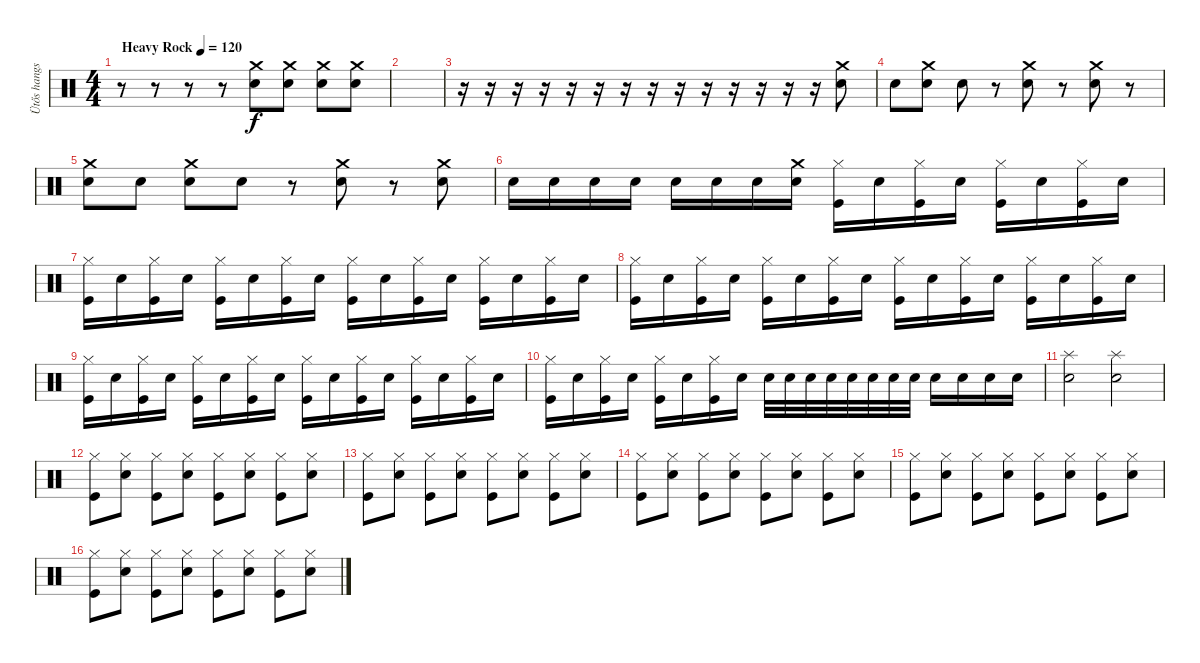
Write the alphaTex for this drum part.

\track ("Ütős hangszer" "Ütős hangs") {instrument percussion}
\staff {score}
\articulation defaults
\ts (4 4)
\tempo (120 "Heavy Rock")
\clef neutral
\ks c
r.8{dy f} r.8 r.8 r.8 ("Crash medium (hit)" "Snare (hit) 2").8 ("Crash medium (hit)" "Snare (hit) 2").8 ("Crash medium (hit)" "Snare (hit) 2").8 ("Crash medium (hit)" "Snare (hit) 2").8 |
|
r.16 r.16 r.16 r.16 r.16 r.16 r.16 r.16 r.16 r.16 r.16 r.16 r.16 r.16 ("Crash medium (hit)" "Snare (hit) 2").8 |
"Snare (hit) 2".8 ("Crash medium (hit)" "Snare (hit) 2").8 "Snare (hit) 2".8 r.8 ("Crash medium (hit)" "Snare (hit) 2").8 r.8 ("Crash medium (hit)" "Snare (hit) 2").8 r.8 |
("Crash medium (hit)" "Snare (hit) 2").8 "Snare (hit) 2".8 ("Crash medium (hit)" "Snare (hit) 2").8 "Snare (hit) 2".8 r.8 ("Crash medium (hit)" "Snare (hit) 2").8 r.8 ("Crash medium (hit)" "Snare (hit) 2").8 |
"Snare (hit) 2".16 "Snare (hit) 2".16 "Snare (hit) 2".16 "Snare (hit) 2".16 "Snare (hit) 2".16 "Snare (hit) 2".16 "Snare (hit) 2".16 ("Crash medium (hit)" "Snare (hit) 2").16 ("Hi-Hat (closed)" "Kick (hit)").16 "Snare (hit) 2".16 ("Hi-Hat (closed)" "Kick (hit)").16 "Snare (hit) 2".16 ("Hi-Hat (closed)" "Kick (hit)").16 "Snare (hit) 2".16 ("Hi-Hat (closed)" "Kick (hit)").16 "Snare (hit) 2".16 |
("Hi-Hat (closed)" "Kick (hit)").16 "Snare (hit) 2".16 ("Hi-Hat (closed)" "Kick (hit)").16 "Snare (hit) 2".16 ("Hi-Hat (closed)" "Kick (hit)").16 "Snare (hit) 2".16 ("Hi-Hat (closed)" "Kick (hit)").16 "Snare (hit) 2".16 ("Hi-Hat (closed)" "Kick (hit)").16 "Snare (hit) 2".16 ("Hi-Hat (closed)" "Kick (hit)").16 "Snare (hit) 2".16 ("Hi-Hat (closed)" "Kick (hit)").16 "Snare (hit) 2".16 ("Hi-Hat (closed)" "Kick (hit)").16 "Snare (hit) 2".16 |
("Hi-Hat (closed)" "Kick (hit)").16 "Snare (hit) 2".16 ("Hi-Hat (closed)" "Kick (hit)").16 "Snare (hit) 2".16 ("Hi-Hat (closed)" "Kick (hit)").16 "Snare (hit) 2".16 ("Hi-Hat (closed)" "Kick (hit)").16 "Snare (hit) 2".16 ("Hi-Hat (closed)" "Kick (hit)").16 "Snare (hit) 2".16 ("Hi-Hat (closed)" "Kick (hit)").16 "Snare (hit) 2".16 ("Hi-Hat (closed)" "Kick (hit)").16 "Snare (hit) 2".16 ("Hi-Hat (closed)" "Kick (hit)").16 "Snare (hit) 2".16 |
("Hi-Hat (closed)" "Kick (hit)").16 "Snare (hit) 2".16 ("Hi-Hat (closed)" "Kick (hit)").16 "Snare (hit) 2".16 ("Hi-Hat (closed)" "Kick (hit)").16 "Snare (hit) 2".16 ("Hi-Hat (closed)" "Kick (hit)").16 "Snare (hit) 2".16 ("Hi-Hat (closed)" "Kick (hit)").16 "Snare (hit) 2".16 ("Hi-Hat (closed)" "Kick (hit)").16 "Snare (hit) 2".16 ("Hi-Hat (closed)" "Kick (hit)").16 "Snare (hit) 2".16 ("Hi-Hat (closed)" "Kick (hit)").16 "Snare (hit) 2".16 |
("Hi-Hat (closed)" "Kick (hit)").16 "Snare (hit) 2".16 ("Hi-Hat (closed)" "Kick (hit)").16 "Snare (hit) 2".16 ("Hi-Hat (closed)" "Kick (hit)").16 "Snare (hit) 2".16 ("Hi-Hat (closed)" "Kick (hit)").16 "Snare (hit) 2".16 "Snare (hit) 2".32 "Snare (hit) 2".32 "Snare (hit) 2".32 "Snare (hit) 2".32 "Snare (hit) 2".32 "Snare (hit) 2".32 "Snare (hit) 2".32 "Snare (hit) 2".32 "Snare (hit) 2".16 "Snare (hit) 2".16 "Snare (hit) 2".16 "Snare (hit) 2".16 |
("Splash (hit)" "Snare (hit) 2").2 ("Splash (hit)" "Snare (hit) 2").2 |
("Hi-Hat (closed)" "Kick (hit)").8 ("Hi-Hat (closed)" "Snare (hit) 2").8 ("Hi-Hat (closed)" "Kick (hit)").8 ("Hi-Hat (closed)" "Snare (hit) 2").8 ("Hi-Hat (closed)" "Kick (hit)").8 ("Hi-Hat (closed)" "Snare (hit) 2").8 ("Hi-Hat (closed)" "Kick (hit)").8 ("Hi-Hat (closed)" "Snare (hit) 2").8 |
("Hi-Hat (closed)" "Kick (hit)").8 ("Hi-Hat (closed)" "Snare (hit) 2").8 ("Hi-Hat (closed)" "Kick (hit)").8 ("Hi-Hat (closed)" "Snare (hit) 2").8 ("Hi-Hat (closed)" "Kick (hit)").8 ("Hi-Hat (closed)" "Snare (hit) 2").8 ("Hi-Hat (closed)" "Kick (hit)").8 ("Hi-Hat (closed)" "Snare (hit) 2").8 |
("Hi-Hat (closed)" "Kick (hit)").8 ("Hi-Hat (closed)" "Snare (hit) 2").8 ("Hi-Hat (closed)" "Kick (hit)").8 ("Hi-Hat (closed)" "Snare (hit) 2").8 ("Hi-Hat (closed)" "Kick (hit)").8 ("Hi-Hat (closed)" "Snare (hit) 2").8 ("Hi-Hat (closed)" "Kick (hit)").8 ("Hi-Hat (closed)" "Snare (hit) 2").8 |
("Hi-Hat (closed)" "Kick (hit)").8 ("Hi-Hat (closed)" "Snare (hit) 2").8 ("Hi-Hat (closed)" "Kick (hit)").8 ("Hi-Hat (closed)" "Snare (hit) 2").8 ("Hi-Hat (closed)" "Kick (hit)").8 ("Hi-Hat (closed)" "Snare (hit) 2").8 ("Hi-Hat (closed)" "Kick (hit)").8 ("Hi-Hat (closed)" "Snare (hit) 2").8 |
("Hi-Hat (closed)" "Kick (hit)").8 ("Hi-Hat (closed)" "Snare (hit) 2").8 ("Hi-Hat (closed)" "Kick (hit)").8 ("Hi-Hat (closed)" "Snare (hit) 2").8 ("Hi-Hat (closed)" "Kick (hit)").8 ("Hi-Hat (closed)" "Snare (hit) 2").8 ("Hi-Hat (closed)" "Kick (hit)").8 ("Hi-Hat (closed)" "Snare (hit) 2").8
